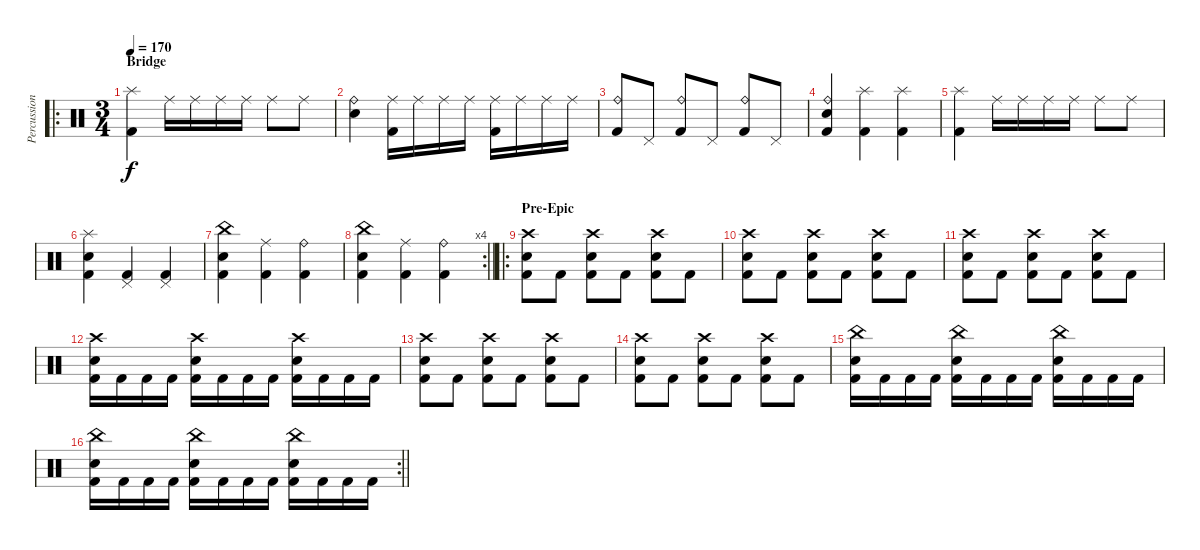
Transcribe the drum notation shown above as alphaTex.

\track ("Percussion" "Percussion") {instrument percussion}
\staff {score}
\articulation defaults
\ro
\ts (3 4)
\section ("" "Bridge")
\tempo 170
\clef neutral
\ks c
("Splash (hit)" "Kick (hit) 2").4{dy f} "Ride (middle)".16 "Ride (middle)".16 "Ride (middle)".16 "Ride (middle)".16 "Ride (middle)".8 "Ride (middle)".8 |
("Ride (bell)" "Electric Snare (hit)").4 ("Ride (middle)" "Kick (hit) 2").16 "Ride (middle)".16 "Ride (middle)".16 "Ride (middle)".16 ("Ride (middle)" "Kick (hit) 2").16 "Ride (middle)".16 "Ride (middle)".16 "Ride (middle)".16 |
("Ride (bell)" "Kick (hit) 2").8 "Pedal Hi-Hat (hit)".8 ("Ride (bell)" "Kick (hit) 2").8 "Pedal Hi-Hat (hit)".8 ("Ride (bell)" "Kick (hit) 2").8 "Pedal Hi-Hat (hit)".8 |
("Ride (bell)" "Electric Snare (hit)" "Kick (hit) 2").4 ("Splash (hit)" "Kick (hit) 2").4 ("Splash (hit)" "Kick (hit) 2").4 |
("Splash (hit)" "Kick (hit) 2").4 "Ride (middle)".16 "Ride (middle)".16 "Ride (middle)".16 "Ride (middle)".16 "Ride (middle)".8 "Ride (middle)".8 |
("Splash (hit)" "Electric Snare (hit)" "Kick (hit) 2").4 ("Pedal Hi-Hat (hit)" "Kick (hit) 2").4 ("Pedal Hi-Hat (hit)" "Kick (hit) 2").4 |
("China (hit)" "Electric Snare (hit)" "Kick (hit) 2").4 ("Ride (middle)" "Kick (hit) 2").4 ("Ride (bell)" "Kick (hit) 2").4 |
\rc 4
\barLineRight lightlight
("China (hit)" "Electric Snare (hit)" "Kick (hit) 2").4 ("Ride (middle)" "Kick (hit) 2").4 ("Ride (bell)" "Kick (hit) 2").4 |
\ro
\section ("" "Pre-Epic")
("Crash high (hit)" "Electric Snare (hit)" "Kick (hit) 2").8 "Kick (hit) 2".8 ("Crash high (hit)" "Electric Snare (hit)" "Kick (hit) 2").8 "Kick (hit) 2".8 ("Crash high (hit)" "Electric Snare (hit)" "Kick (hit) 2").8 "Kick (hit) 2".8 |
("Crash high (hit)" "Electric Snare (hit)" "Kick (hit) 2").8 "Kick (hit) 2".8 ("Crash high (hit)" "Electric Snare (hit)" "Kick (hit) 2").8 "Kick (hit) 2".8 ("Crash high (hit)" "Electric Snare (hit)" "Kick (hit) 2").8 "Kick (hit) 2".8 |
("Crash high (hit)" "Electric Snare (hit)" "Kick (hit) 2").8 "Kick (hit) 2".8 ("Crash high (hit)" "Electric Snare (hit)" "Kick (hit) 2").8 "Kick (hit) 2".8 ("Crash high (hit)" "Electric Snare (hit)" "Kick (hit) 2").8 "Kick (hit) 2".8 |
("Crash high (hit)" "Electric Snare (hit)" "Kick (hit) 2").16 "Kick (hit) 2".16 "Kick (hit) 2".16 "Kick (hit) 2".16 ("Crash high (hit)" "Electric Snare (hit)" "Kick (hit) 2").16 "Kick (hit) 2".16 "Kick (hit) 2".16 "Kick (hit) 2".16 ("Crash high (hit)" "Electric Snare (hit)" "Kick (hit) 2").16 "Kick (hit) 2".16 "Kick (hit) 2".16 "Kick (hit) 2".16 |
("Crash high (hit)" "Electric Snare (hit)" "Kick (hit) 2").8 "Kick (hit) 2".8 ("Crash high (hit)" "Electric Snare (hit)" "Kick (hit) 2").8 "Kick (hit) 2".8 ("Crash high (hit)" "Electric Snare (hit)" "Kick (hit) 2").8 "Kick (hit) 2".8 |
("Crash high (hit)" "Electric Snare (hit)" "Kick (hit) 2").8 "Kick (hit) 2".8 ("Crash high (hit)" "Electric Snare (hit)" "Kick (hit) 2").8 "Kick (hit) 2".8 ("Crash high (hit)" "Electric Snare (hit)" "Kick (hit) 2").8 "Kick (hit) 2".8 |
("China (hit)" "Electric Snare (hit)" "Kick (hit) 2").16 "Kick (hit) 2".16 "Kick (hit) 2".16 "Kick (hit) 2".16 ("China (hit)" "Electric Snare (hit)" "Kick (hit) 2").16 "Kick (hit) 2".16 "Kick (hit) 2".16 "Kick (hit) 2".16 ("China (hit)" "Electric Snare (hit)" "Kick (hit) 2").16 "Kick (hit) 2".16 "Kick (hit) 2".16 "Kick (hit) 2".16 |
\rc 2
\barLineRight lightlight
("China (hit)" "Electric Snare (hit)" "Kick (hit) 2").16 "Kick (hit) 2".16 "Kick (hit) 2".16 "Kick (hit) 2".16 ("China (hit)" "Electric Snare (hit)" "Kick (hit) 2").16 "Kick (hit) 2".16 "Kick (hit) 2".16 "Kick (hit) 2".16 ("China (hit)" "Electric Snare (hit)" "Kick (hit) 2").16 "Kick (hit) 2".16 "Kick (hit) 2".16 "Kick (hit) 2".16
